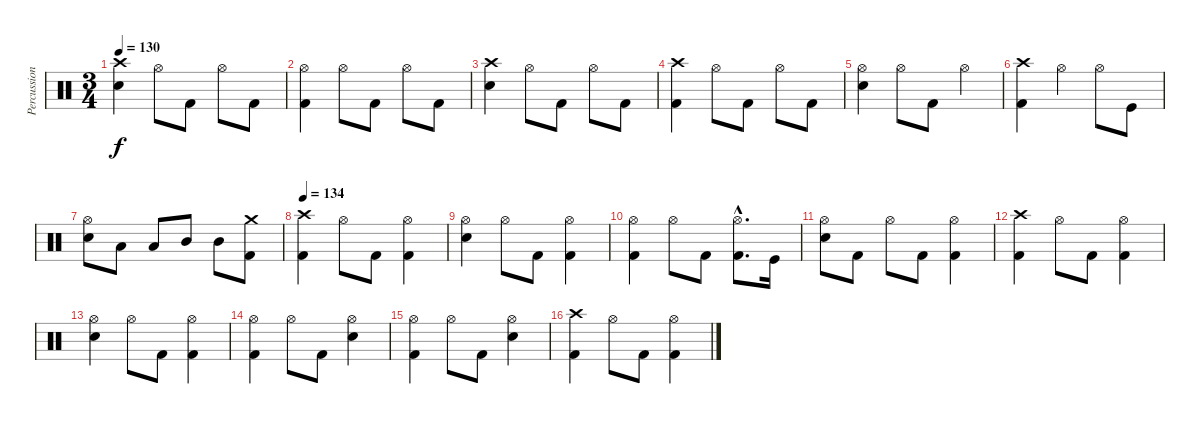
\track ("Percussion" "Percussion") {instrument percussion}
\staff {score}
\articulation defaults
\ts (3 4)
\tempo 130
\clef neutral
\ks c
("Crash high (hit)" "Snare (hit) 2").4{dy f} "Hi-Hat (open)".8 "Kick (hit) 2".8 "Hi-Hat (open)".8 "Kick (hit) 2".8 |
("Hi-Hat (open)" "Kick (hit) 2").4 "Hi-Hat (open)".8 "Kick (hit) 2".8 "Hi-Hat (open)".8 "Kick (hit) 2".8 |
("Crash high (hit)" "Snare (hit) 2").4 "Hi-Hat (open)".8 "Kick (hit) 2".8 "Hi-Hat (open)".8 "Kick (hit) 2".8 |
("Crash high (hit)" "Kick (hit) 2").4 "Hi-Hat (open)".8 "Kick (hit) 2".8 "Hi-Hat (open)".8 "Kick (hit) 2".8 |
("Hi-Hat (open)" "Snare (hit) 2").4 "Hi-Hat (open)".8 "Kick (hit) 2".8 "Hi-Hat (open)".4 |
("Crash high (hit)" "Kick (hit) 2").4 "Hi-Hat (open)".4 "Hi-Hat (open)".8 "Kick (hit)".8 |
("Hi-Hat (open)" "Snare (hit) 2").8 "Low Tom (hit)".8 "Low Tom (hit)".8 "Mid Tom (hit)".8 "Mid Tom (hit)".8 ("Crash medium (hit)" "Kick (hit) 2").8 |
\tempo 134
("Crash high (hit)" "Kick (hit) 2").4 "Hi-Hat (open)".8 "Kick (hit) 2".8 ("Hi-Hat (open)" "Kick (hit) 2").4 |
("Hi-Hat (open)" "Snare (hit) 2").4 "Hi-Hat (open)".8 "Kick (hit) 2".8 ("Hi-Hat (open)" "Kick (hit) 2").4 |
("Hi-Hat (open)" "Kick (hit) 2").4 "Hi-Hat (open)".8 "Kick (hit) 2".8 ("Hi-Hat (open)"{hac} "Kick (hit) 2"{hac}).8{d} "Kick (hit)".16 |
("Hi-Hat (open)" "Snare (hit) 2").8 "Kick (hit) 2".8 "Hi-Hat (open)".8 "Kick (hit) 2".8 ("Hi-Hat (open)" "Kick (hit) 2").4 |
("Crash high (hit)" "Kick (hit) 2").4 "Hi-Hat (open)".8 "Kick (hit) 2".8 ("Hi-Hat (open)" "Kick (hit) 2").4 |
("Hi-Hat (open)" "Snare (hit) 2").4 "Hi-Hat (open)".8 "Kick (hit) 2".8 ("Hi-Hat (open)" "Kick (hit) 2").4 |
("Hi-Hat (open)" "Kick (hit) 2").4 "Hi-Hat (open)".8 "Kick (hit) 2".8 ("Hi-Hat (open)" "Snare (hit) 2").4 |
("Hi-Hat (open)" "Kick (hit) 2").4 "Hi-Hat (open)".8 "Kick (hit) 2".8 ("Hi-Hat (open)" "Snare (hit) 2").4 |
("Crash high (hit)" "Kick (hit) 2").4 "Hi-Hat (open)".8 "Kick (hit) 2".8 ("Hi-Hat (open)" "Kick (hit) 2").4
